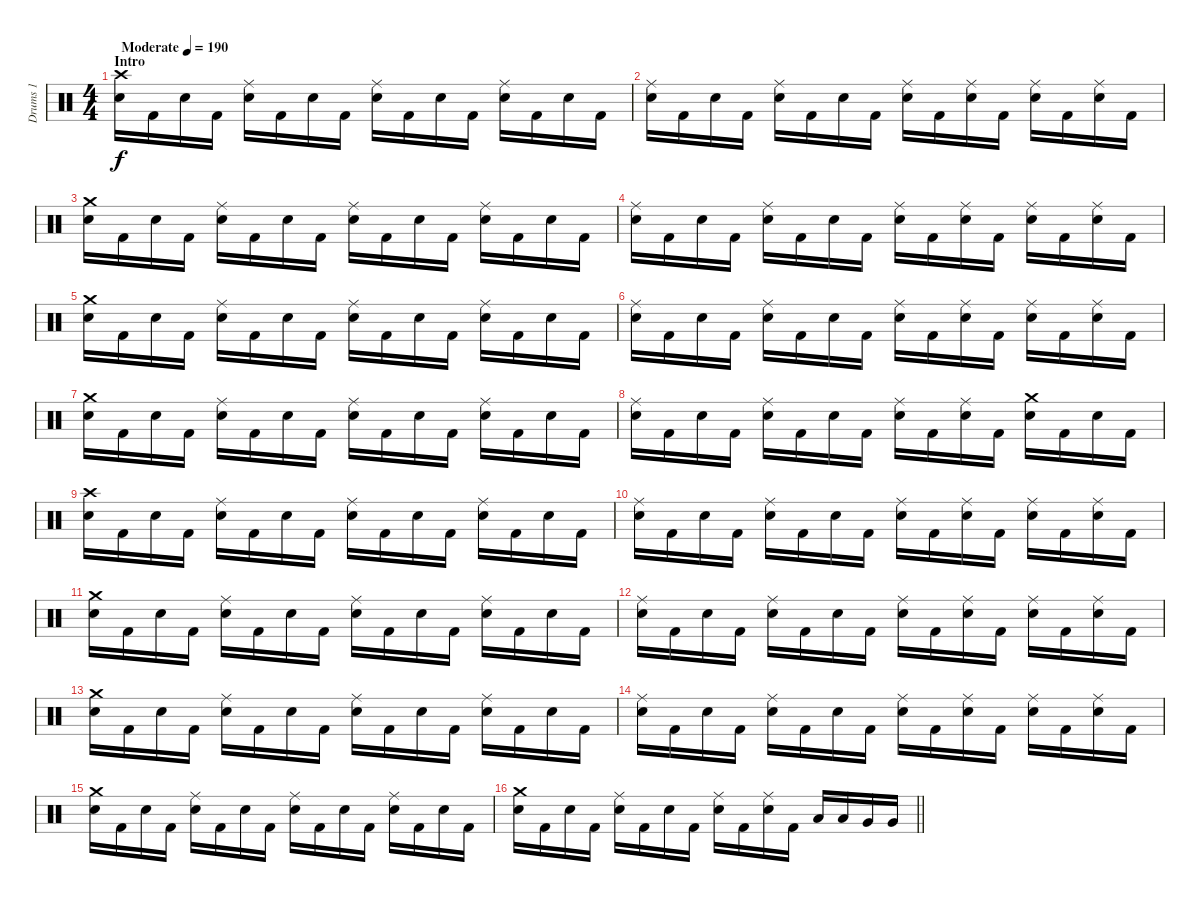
\track ("Drums 1" "Drums 1") {instrument percussion}
\staff {score}
\articulation defaults
\ts (4 4)
\section ("" "Intro")
\tempo (190 "Moderate")
\clef neutral
\ks c
("Crash high (hit)" "Snare (hit) 2").16{dy f} "Kick (hit) 2".16 "Snare (hit) 2".16 "Kick (hit) 2".16 ("Ride (middle)" "Snare (hit) 2").16 "Kick (hit) 2".16 "Snare (hit) 2".16 "Kick (hit) 2".16 ("Ride (middle)" "Snare (hit) 2").16 "Kick (hit) 2".16 "Snare (hit) 2".16 "Kick (hit) 2".16 ("Ride (middle)" "Snare (hit) 2").16 "Kick (hit) 2".16 "Snare (hit) 2".16 "Kick (hit) 2".16 |
("Ride (middle)" "Snare (hit) 2").16 "Kick (hit) 2".16 "Snare (hit) 2".16 "Kick (hit) 2".16 ("Ride (middle)" "Snare (hit) 2").16 "Kick (hit) 2".16 "Snare (hit) 2".16 "Kick (hit) 2".16 ("Ride (middle)" "Snare (hit) 2").16 "Kick (hit) 2".16 ("Ride (middle)" "Snare (hit) 2").16 "Kick (hit) 2".16 ("Ride (middle)" "Snare (hit) 2").16 "Kick (hit) 2".16 ("Ride (middle)" "Snare (hit) 2").16 "Kick (hit) 2".16 |
("Crash medium (hit)" "Snare (hit) 2").16 "Kick (hit) 2".16 "Snare (hit) 2".16 "Kick (hit) 2".16 ("Ride (middle)" "Snare (hit) 2").16 "Kick (hit) 2".16 "Snare (hit) 2".16 "Kick (hit) 2".16 ("Ride (middle)" "Snare (hit) 2").16 "Kick (hit) 2".16 "Snare (hit) 2".16 "Kick (hit) 2".16 ("Ride (middle)" "Snare (hit) 2").16 "Kick (hit) 2".16 "Snare (hit) 2".16 "Kick (hit) 2".16 |
("Ride (middle)" "Snare (hit) 2").16 "Kick (hit) 2".16 "Snare (hit) 2".16 "Kick (hit) 2".16 ("Ride (middle)" "Snare (hit) 2").16 "Kick (hit) 2".16 "Snare (hit) 2".16 "Kick (hit) 2".16 ("Ride (middle)" "Snare (hit) 2").16 "Kick (hit) 2".16 ("Ride (middle)" "Snare (hit) 2").16 "Kick (hit) 2".16 ("Ride (middle)" "Snare (hit) 2").16 "Kick (hit) 2".16 ("Ride (middle)" "Snare (hit) 2").16 "Kick (hit) 2".16 |
("Crash medium (hit)" "Snare (hit) 2").16 "Kick (hit) 2".16 "Snare (hit) 2".16 "Kick (hit) 2".16 ("Ride (middle)" "Snare (hit) 2").16 "Kick (hit) 2".16 "Snare (hit) 2".16 "Kick (hit) 2".16 ("Ride (middle)" "Snare (hit) 2").16 "Kick (hit) 2".16 "Snare (hit) 2".16 "Kick (hit) 2".16 ("Ride (middle)" "Snare (hit) 2").16 "Kick (hit) 2".16 "Snare (hit) 2".16 "Kick (hit) 2".16 |
("Ride (middle)" "Snare (hit) 2").16 "Kick (hit) 2".16 "Snare (hit) 2".16 "Kick (hit) 2".16 ("Ride (middle)" "Snare (hit) 2").16 "Kick (hit) 2".16 "Snare (hit) 2".16 "Kick (hit) 2".16 ("Ride (middle)" "Snare (hit) 2").16 "Kick (hit) 2".16 ("Ride (middle)" "Snare (hit) 2").16 "Kick (hit) 2".16 ("Ride (middle)" "Snare (hit) 2").16 "Kick (hit) 2".16 ("Ride (middle)" "Snare (hit) 2").16 "Kick (hit) 2".16 |
("Crash medium (hit)" "Snare (hit) 2").16 "Kick (hit) 2".16 "Snare (hit) 2".16 "Kick (hit) 2".16 ("Ride (middle)" "Snare (hit) 2").16 "Kick (hit) 2".16 "Snare (hit) 2".16 "Kick (hit) 2".16 ("Ride (middle)" "Snare (hit) 2").16 "Kick (hit) 2".16 "Snare (hit) 2".16 "Kick (hit) 2".16 ("Ride (middle)" "Snare (hit) 2").16 "Kick (hit) 2".16 "Snare (hit) 2".16 "Kick (hit) 2".16 |
("Ride (middle)" "Snare (hit) 2").16 "Kick (hit) 2".16 "Snare (hit) 2".16 "Kick (hit) 2".16 ("Ride (middle)" "Snare (hit) 2").16 "Kick (hit) 2".16 "Snare (hit) 2".16 "Kick (hit) 2".16 ("Ride (middle)" "Snare (hit) 2").16 "Kick (hit) 2".16 ("Ride (middle)" "Snare (hit) 2").16 "Kick (hit) 2".16 ("Crash medium (hit)" "Snare (hit) 2").16 "Kick (hit) 2".16 "Snare (hit) 2".16 "Kick (hit) 2".16 |
("Crash high (hit)" "Snare (hit) 2").16 "Kick (hit) 2".16 "Snare (hit) 2".16 "Kick (hit) 2".16 ("Ride (middle)" "Snare (hit) 2").16 "Kick (hit) 2".16 "Snare (hit) 2".16 "Kick (hit) 2".16 ("Ride (middle)" "Snare (hit) 2").16 "Kick (hit) 2".16 "Snare (hit) 2".16 "Kick (hit) 2".16 ("Ride (middle)" "Snare (hit) 2").16 "Kick (hit) 2".16 "Snare (hit) 2".16 "Kick (hit) 2".16 |
("Ride (middle)" "Snare (hit) 2").16 "Kick (hit) 2".16 "Snare (hit) 2".16 "Kick (hit) 2".16 ("Ride (middle)" "Snare (hit) 2").16 "Kick (hit) 2".16 "Snare (hit) 2".16 "Kick (hit) 2".16 ("Ride (middle)" "Snare (hit) 2").16 "Kick (hit) 2".16 ("Ride (middle)" "Snare (hit) 2").16 "Kick (hit) 2".16 ("Ride (middle)" "Snare (hit) 2").16 "Kick (hit) 2".16 ("Ride (middle)" "Snare (hit) 2").16 "Kick (hit) 2".16 |
("Crash medium (hit)" "Snare (hit) 2").16 "Kick (hit) 2".16 "Snare (hit) 2".16 "Kick (hit) 2".16 ("Ride (middle)" "Snare (hit) 2").16 "Kick (hit) 2".16 "Snare (hit) 2".16 "Kick (hit) 2".16 ("Ride (middle)" "Snare (hit) 2").16 "Kick (hit) 2".16 "Snare (hit) 2".16 "Kick (hit) 2".16 ("Ride (middle)" "Snare (hit) 2").16 "Kick (hit) 2".16 "Snare (hit) 2".16 "Kick (hit) 2".16 |
("Ride (middle)" "Snare (hit) 2").16 "Kick (hit) 2".16 "Snare (hit) 2".16 "Kick (hit) 2".16 ("Ride (middle)" "Snare (hit) 2").16 "Kick (hit) 2".16 "Snare (hit) 2".16 "Kick (hit) 2".16 ("Ride (middle)" "Snare (hit) 2").16 "Kick (hit) 2".16 ("Ride (middle)" "Snare (hit) 2").16 "Kick (hit) 2".16 ("Ride (middle)" "Snare (hit) 2").16 "Kick (hit) 2".16 ("Ride (middle)" "Snare (hit) 2").16 "Kick (hit) 2".16 |
("Crash medium (hit)" "Snare (hit) 2").16 "Kick (hit) 2".16 "Snare (hit) 2".16 "Kick (hit) 2".16 ("Ride (middle)" "Snare (hit) 2").16 "Kick (hit) 2".16 "Snare (hit) 2".16 "Kick (hit) 2".16 ("Ride (middle)" "Snare (hit) 2").16 "Kick (hit) 2".16 "Snare (hit) 2".16 "Kick (hit) 2".16 ("Ride (middle)" "Snare (hit) 2").16 "Kick (hit) 2".16 "Snare (hit) 2".16 "Kick (hit) 2".16 |
("Ride (middle)" "Snare (hit) 2").16 "Kick (hit) 2".16 "Snare (hit) 2".16 "Kick (hit) 2".16 ("Ride (middle)" "Snare (hit) 2").16 "Kick (hit) 2".16 "Snare (hit) 2".16 "Kick (hit) 2".16 ("Ride (middle)" "Snare (hit) 2").16 "Kick (hit) 2".16 ("Ride (middle)" "Snare (hit) 2").16 "Kick (hit) 2".16 ("Ride (middle)" "Snare (hit) 2").16 "Kick (hit) 2".16 ("Ride (middle)" "Snare (hit) 2").16 "Kick (hit) 2".16 |
("Crash medium (hit)" "Snare (hit) 2").16 "Kick (hit) 2".16 "Snare (hit) 2".16 "Kick (hit) 2".16 ("Ride (middle)" "Snare (hit) 2").16 "Kick (hit) 2".16 "Snare (hit) 2".16 "Kick (hit) 2".16 ("Ride (middle)" "Snare (hit) 2").16 "Kick (hit) 2".16 "Snare (hit) 2".16 "Kick (hit) 2".16 ("Ride (middle)" "Snare (hit) 2").16 "Kick (hit) 2".16 "Snare (hit) 2".16 "Kick (hit) 2".16 |
\barLineRight lightlight
("Crash medium (hit)" "Snare (hit) 2").16 "Kick (hit) 2".16 "Snare (hit) 2".16 "Kick (hit) 2".16 ("Ride (middle)" "Snare (hit) 2").16 "Kick (hit) 2".16 "Snare (hit) 2".16 "Kick (hit) 2".16 ("Ride (middle)" "Snare (hit) 2").16 "Kick (hit) 2".16 ("Ride (middle)" "Snare (hit) 2").16 "Kick (hit) 2".16 "Low Tom (hit)".16 "Low Tom (hit)".16 "Very Low Tom (hit)".16 "Very Low Tom (hit)".16
